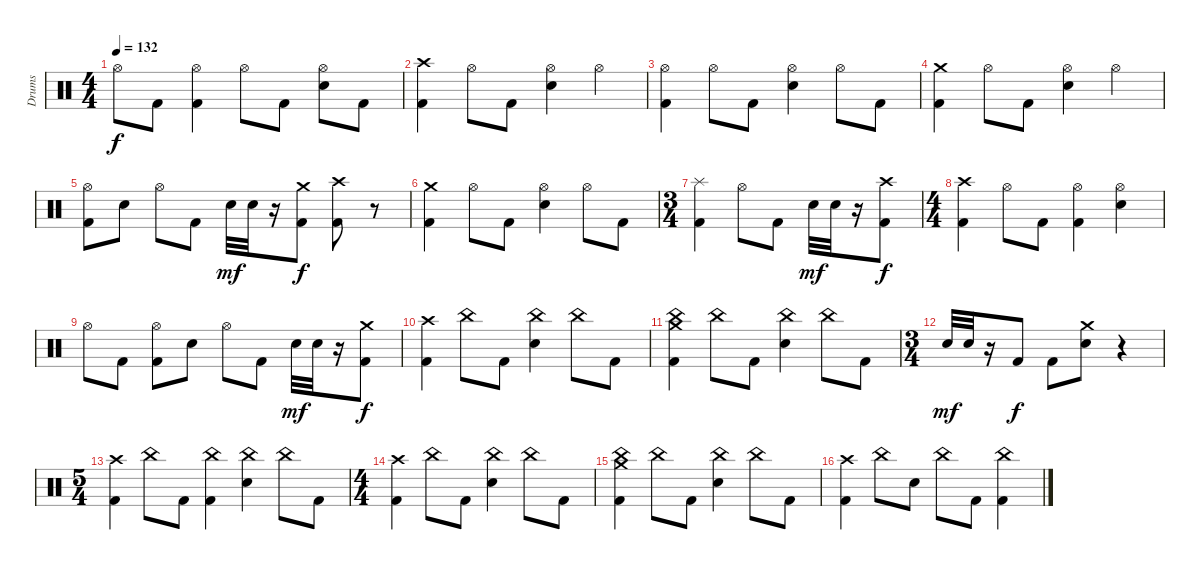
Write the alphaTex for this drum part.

\track ("Drums" "Drums") {instrument percussion}
\staff {score}
\articulation defaults
\ts (4 4)
\tempo 132
\clef neutral
\ks c "Hi-Hat (open)".8{dy f} "Kick (hit) 2".8
("Hi-Hat (open)" "Kick (hit) 2").4 "Hi-Hat (open)".8 "Kick (hit) 2".8 ("Hi-Hat (open)" "Electric Snare (hit)").8 "Kick (hit) 2".8 |
("Crash high (hit)" "Kick (hit) 2").4 "Hi-Hat (open)".8 "Kick (hit) 2".8 ("Electric Snare (hit)" "Hi-Hat (open)").4 "Hi-Hat (open)".4 |
("Hi-Hat (open)" "Kick (hit) 2").4 "Hi-Hat (open)".8 "Kick (hit) 2".8 ("Hi-Hat (open)" "Electric Snare (hit)").4 "Hi-Hat (open)".8 "Kick (hit) 2".8 |
("Kick (hit) 2" "Crash medium (hit)").4 "Hi-Hat (open)".8 "Kick (hit) 2".8 ("Hi-Hat (open)" "Electric Snare (hit)").4 "Hi-Hat (open)".4 |
("Hi-Hat (open)" "Kick (hit) 2").8 "Electric Snare (hit)".8 "Hi-Hat (open)".8 "Kick (hit) 2".8 "Electric Snare (hit)".32{dy mf} "Electric Snare (hit)".32 r.16 ("Kick (hit) 2" "Crash medium (hit)").8{dy f} ("Crash high (hit)" "Kick (hit) 2").8 r.8 |
("Crash medium (hit)" "Kick (hit) 2").4 "Hi-Hat (open)".8 "Kick (hit) 2".8 ("Electric Snare (hit)" "Hi-Hat (open)").4 "Hi-Hat (open)".8 "Kick (hit) 2".8 |
\ts (3 4)
("Kick (hit) 2" "Splash (hit)").4 "Hi-Hat (open)".8 "Kick (hit) 2".8 "Electric Snare (hit)".32{dy mf} "Electric Snare (hit)".32 r.16 ("Kick (hit) 2" "Crash high (hit)").8{dy f} |
\ts (4 4)
("Kick (hit) 2" "Crash high (hit)").4 "Hi-Hat (open)".8 "Kick (hit) 2".8 ("Hi-Hat (open)" "Kick (hit) 2").4 ("Hi-Hat (open)" "Electric Snare (hit)").4 |
"Hi-Hat (open)".8 "Kick (hit) 2".8 ("Hi-Hat (open)" "Kick (hit) 2").8 "Electric Snare (hit)".8 "Hi-Hat (open)".8 "Kick (hit) 2".8 "Electric Snare (hit)".32{dy mf} "Electric Snare (hit)".32 r.16 ("Kick (hit) 2" "Crash medium (hit)").8{dy f} |
("Kick (hit) 2" "Crash high (hit)").4 "China (hit)".8 "Kick (hit) 2".8 ("China (hit)" "Electric Snare (hit)").4 "China (hit)".8 "Kick (hit) 2".8 |
("Kick (hit) 2" "Crash medium (hit)" "China (hit)").4 "China (hit)".8 "Kick (hit) 2".8 ("China (hit)" "Electric Snare (hit)").4 "China (hit)".8 "Kick (hit) 2".8 |
\ts (3 4)
"Electric Snare (hit)".32{dy mf} "Electric Snare (hit)".32 r.16 "Kick (hit) 2".8{dy f} "Kick (hit) 2".8 ("Electric Snare (hit)" "Crash medium (hit)").8 r.4 |
\ts (5 4)
("Crash high (hit)" "Kick (hit) 2").4 "China (hit)".8 "Kick (hit) 2".8 ("China (hit)" "Kick (hit) 2").4 ("China (hit)" "Electric Snare (hit)").4 "China (hit)".8 "Kick (hit) 2".8 |
\ts (4 4)
("Crash high (hit)" "Kick (hit) 2").4 "China (hit)".8 "Kick (hit) 2".8 ("China (hit)" "Electric Snare (hit)").4 "China (hit)".8 "Kick (hit) 2".8 |
("Kick (hit) 2" "Crash medium (hit)" "China (hit)").4 "China (hit)".8 "Kick (hit) 2".8 ("China (hit)" "Electric Snare (hit)").4 "China (hit)".8 "Kick (hit) 2".8 |
("Kick (hit) 2" "Crash high (hit)").4 "China (hit)".8 "Electric Snare (hit)".8 "China (hit)".8 "Kick (hit) 2".8 ("China (hit)" "Kick (hit) 2").4
